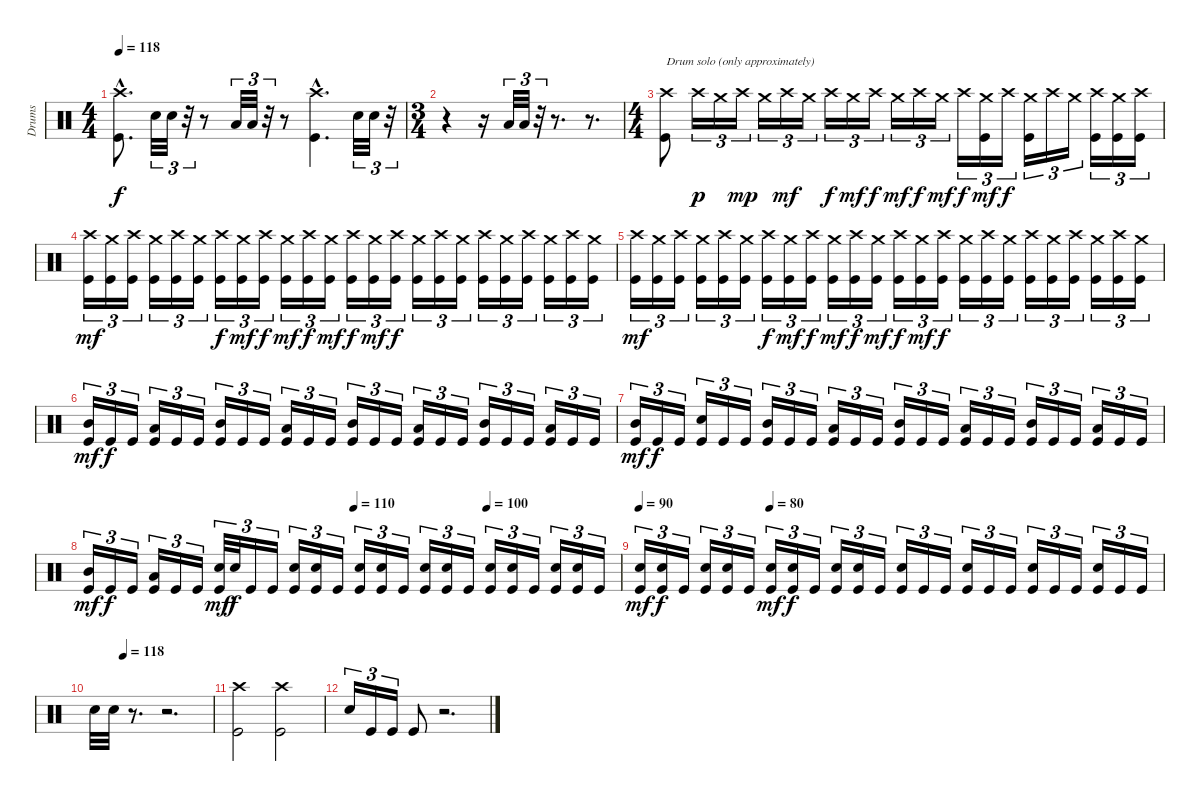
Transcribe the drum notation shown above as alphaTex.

\track ("Drums" "Drums") {instrument percussion}
\staff {score}
\articulation defaults
\ts (4 4)
\tempo 118
\clef neutral
\ks c
("Crash high (hit)"{hac} "Kick (hit)"{hac}).8{d dy f} "Snare (hit) 2".32{tu (3 2)} "Snare (hit) 2".32{tu (3 2)} r.32{tu (3 2)} r.8 "Low Tom (hit)".32{tu (3 2)} "Low Tom (hit)".32{tu (3 2)} r.32{tu (3 2)} r.8 ("Crash high (hit)"{hac} "Kick (hit)"{hac}).4{d} "Snare (hit) 2".32{tu (3 2)} "Snare (hit) 2".32{tu (3 2)} r.32{tu (3 2)} |
\ts (3 4)
r.4 r.16 "Low Tom (hit)".32{tu (3 2)} "Low Tom (hit)".32{tu (3 2)} r.32{tu (3 2)} r.8{d} r.8{d} |
\ts (4 4)
("Crash high (hit)" "Kick (hit)").8{txt "Drum solo (only approximately)"} "Crash high (hit)".16{tu (3 2) dy p} "Crash medium (hit)".16{tu (3 2)} "Crash high (hit)".16{tu (3 2) dy mp} "Crash medium (hit)".16{tu (3 2)} "Crash high (hit)".16{tu (3 2) dy mf} "Crash medium (hit)".16{tu (3 2)} "Crash high (hit)".16{tu (3 2) dy f} "Crash medium (hit)".16{tu (3 2) dy mf} "Crash high (hit)".16{tu (3 2) dy f} "Crash medium (hit)".16{tu (3 2) dy mf} "Crash high (hit)".16{tu (3 2) dy f} "Crash medium (hit)".16{tu (3 2) dy mf} "Crash high (hit)".16{tu (3 2) dy f} ("Crash medium (hit)" "Kick (hit)").16{tu (3 2) dy mf} "Crash high (hit)".16{tu (3 2) dy f} ("Crash medium (hit)" "Kick (hit)").16{tu (3 2)} "Crash high (hit)".16{tu (3 2)} "Crash medium (hit)".16{tu (3 2)} ("Crash high (hit)" "Kick (hit)").16{tu (3 2)} ("Crash medium (hit)" "Kick (hit)").16{tu (3 2)} ("Crash high (hit)" "Kick (hit)").16{tu (3 2)} |
("Crash high (hit)" "Kick (hit)").16{tu (3 2) dy mf} ("Crash medium (hit)" "Kick (hit)").16{tu (3 2)} ("Crash high (hit)" "Kick (hit)").16{tu (3 2)} ("Crash medium (hit)" "Kick (hit)").16{tu (3 2)} ("Crash high (hit)" "Kick (hit)").16{tu (3 2)} ("Crash medium (hit)" "Kick (hit)").16{tu (3 2)} ("Crash high (hit)" "Kick (hit)").16{tu (3 2) dy f} ("Crash medium (hit)" "Kick (hit)").16{tu (3 2) dy mf} ("Crash high (hit)" "Kick (hit)").16{tu (3 2) dy f} ("Crash medium (hit)" "Kick (hit)").16{tu (3 2) dy mf} ("Crash high (hit)" "Kick (hit)").16{tu (3 2) dy f} ("Crash medium (hit)" "Kick (hit)").16{tu (3 2) dy mf} ("Crash high (hit)" "Kick (hit)").16{tu (3 2) dy f} ("Crash medium (hit)" "Kick (hit)").16{tu (3 2) dy mf} ("Crash high (hit)" "Kick (hit)").16{tu (3 2) dy f} ("Crash medium (hit)" "Kick (hit)").16{tu (3 2)} ("Crash high (hit)" "Kick (hit)").16{tu (3 2)} ("Crash medium (hit)" "Kick (hit)").16{tu (3 2)} ("Crash high (hit)" "Kick (hit)").16{tu (3 2)} ("Crash medium (hit)" "Kick (hit)").16{tu (3 2)} ("Crash high (hit)" "Kick (hit)").16{tu (3 2)} ("Crash medium (hit)" "Kick (hit)").16{tu (3 2)} ("Crash high (hit)" "Kick (hit)").16{tu (3 2)} ("Crash medium (hit)" "Kick (hit)").16{tu (3 2)} |
("Crash high (hit)" "Kick (hit)").16{tu (3 2) dy mf} ("Crash medium (hit)" "Kick (hit)").16{tu (3 2)} ("Crash high (hit)" "Kick (hit)").16{tu (3 2)} ("Crash medium (hit)" "Kick (hit)").16{tu (3 2)} ("Crash high (hit)" "Kick (hit)").16{tu (3 2)} ("Crash medium (hit)" "Kick (hit)").16{tu (3 2)} ("Crash high (hit)" "Kick (hit)").16{tu (3 2) dy f} ("Crash medium (hit)" "Kick (hit)").16{tu (3 2) dy mf} ("Crash high (hit)" "Kick (hit)").16{tu (3 2) dy f} ("Crash medium (hit)" "Kick (hit)").16{tu (3 2) dy mf} ("Crash high (hit)" "Kick (hit)").16{tu (3 2) dy f} ("Crash medium (hit)" "Kick (hit)").16{tu (3 2) dy mf} ("Crash high (hit)" "Kick (hit)").16{tu (3 2) dy f} ("Crash medium (hit)" "Kick (hit)").16{tu (3 2) dy mf} ("Crash high (hit)" "Kick (hit)").16{tu (3 2) dy f} ("Crash medium (hit)" "Kick (hit)").16{tu (3 2)} ("Crash high (hit)" "Kick (hit)").16{tu (3 2)} ("Crash medium (hit)" "Kick (hit)").16{tu (3 2)} ("Crash high (hit)" "Kick (hit)").16{tu (3 2)} ("Crash medium (hit)" "Kick (hit)").16{tu (3 2)} ("Crash high (hit)" "Kick (hit)").16{tu (3 2)} ("Crash medium (hit)" "Kick (hit)").16{tu (3 2)} ("Crash high (hit)" "Kick (hit)").16{tu (3 2)} ("Crash medium (hit)" "Kick (hit)").16{tu (3 2)} |
("Mid Tom (hit)" "Kick (hit)").16{tu (3 2) dy mf} "Kick (hit)".16{tu (3 2) dy f} "Kick (hit)".16{tu (3 2)} ("Low Tom (hit)" "Kick (hit)").16{tu (3 2)} "Kick (hit)".16{tu (3 2)} "Kick (hit)".16{tu (3 2)} ("Mid Tom (hit)" "Kick (hit)").16{tu (3 2)} "Kick (hit)".16{tu (3 2)} "Kick (hit)".16{tu (3 2)} ("Low Tom (hit)" "Kick (hit)").16{tu (3 2)} "Kick (hit)".16{tu (3 2)} "Kick (hit)".16{tu (3 2)} ("Mid Tom (hit)" "Kick (hit)").16{tu (3 2)} "Kick (hit)".16{tu (3 2)} "Kick (hit)".16{tu (3 2)} ("Low Tom (hit)" "Kick (hit)").16{tu (3 2)} "Kick (hit)".16{tu (3 2)} "Kick (hit)".16{tu (3 2)} ("Mid Tom (hit)" "Kick (hit)").16{tu (3 2)} "Kick (hit)".16{tu (3 2)} "Kick (hit)".16{tu (3 2)} ("Low Tom (hit)" "Kick (hit)").16{tu (3 2)} "Kick (hit)".16{tu (3 2)} "Kick (hit)".16{tu (3 2)} |
("Mid Tom (hit)" "Kick (hit)").16{tu (3 2) dy mf} "Kick (hit)".16{tu (3 2) dy f} "Kick (hit)".16{tu (3 2)} ("Snare (hit) 2" "Kick (hit)").16{tu (3 2)} "Kick (hit)".16{tu (3 2)} "Kick (hit)".16{tu (3 2)} ("Mid Tom (hit)" "Kick (hit)").16{tu (3 2)} "Kick (hit)".16{tu (3 2)} "Kick (hit)".16{tu (3 2)} ("Low Tom (hit)" "Kick (hit)").16{tu (3 2)} "Kick (hit)".16{tu (3 2)} "Kick (hit)".16{tu (3 2)} ("Mid Tom (hit)" "Kick (hit)").16{tu (3 2)} "Kick (hit)".16{tu (3 2)} "Kick (hit)".16{tu (3 2)} ("Low Tom (hit)" "Kick (hit)").16{tu (3 2)} "Kick (hit)".16{tu (3 2)} "Kick (hit)".16{tu (3 2)} ("Mid Tom (hit)" "Kick (hit)").16{tu (3 2)} "Kick (hit)".16{tu (3 2)} "Kick (hit)".16{tu (3 2)} ("Low Tom (hit)" "Kick (hit)").16{tu (3 2)} "Kick (hit)".16{tu (3 2)} "Kick (hit)".16{tu (3 2)} |
\tempo (110 0.5)
\tempo (100 0.75)
("Mid Tom (hit)" "Kick (hit)").16{tu (3 2) dy mf} "Kick (hit)".16{tu (3 2) dy f} "Kick (hit)".16{tu (3 2)} ("Low Tom (hit)" "Kick (hit)").16{tu (3 2)} "Kick (hit)".16{tu (3 2)} "Kick (hit)".16{tu (3 2)} ("Snare (hit) 2" "Kick (hit)").32{tu (3 2) dy mf} "Snare (hit) 2".32{tu (3 2) dy f} "Kick (hit)".16{tu (3 2)} "Kick (hit)".16{tu (3 2)} ("Snare (hit) 2" "Kick (hit)").16{tu (3 2)} ("Snare (hit) 2" "Kick (hit)").16{tu (3 2)} "Kick (hit)".16{tu (3 2)} ("Snare (hit) 2" "Kick (hit)").16{tu (3 2)} ("Snare (hit) 2" "Kick (hit)").16{tu (3 2)} "Kick (hit)".16{tu (3 2)} ("Snare (hit) 2" "Kick (hit)").16{tu (3 2)} ("Snare (hit) 2" "Kick (hit)").16{tu (3 2)} "Kick (hit)".16{tu (3 2)} ("Snare (hit) 2" "Kick (hit)").16{tu (3 2)} ("Snare (hit) 2" "Kick (hit)").16{tu (3 2)} "Kick (hit)".16{tu (3 2)} ("Snare (hit) 2" "Kick (hit)").16{tu (3 2)} ("Snare (hit) 2" "Kick (hit)").16{tu (3 2)} "Kick (hit)".16{tu (3 2)} |
\tempo 90
\tempo (80 0.25)
("Snare (hit) 2" "Kick (hit)").16{tu (3 2) dy mf} ("Snare (hit) 2" "Kick (hit)").16{tu (3 2) dy f} "Kick (hit)".16{tu (3 2)} ("Snare (hit) 2" "Kick (hit)").16{tu (3 2)} ("Snare (hit) 2" "Kick (hit)").16{tu (3 2)} "Kick (hit)".16{tu (3 2)} ("Snare (hit) 2" "Kick (hit)").16{tu (3 2) dy mf} ("Snare (hit) 2" "Kick (hit)").16{tu (3 2) dy f} "Kick (hit)".16{tu (3 2)} ("Snare (hit) 2" "Kick (hit)").16{tu (3 2)} ("Snare (hit) 2" "Kick (hit)").16{tu (3 2)} "Kick (hit)".16{tu (3 2)} ("Snare (hit) 2" "Kick (hit)").16{tu (3 2)} "Kick (hit)".16{tu (3 2)} "Kick (hit)".16{tu (3 2)} ("Snare (hit) 2" "Kick (hit)").16{tu (3 2)} "Kick (hit)".16{tu (3 2)} "Kick (hit)".16{tu (3 2)} ("Snare (hit) 2" "Kick (hit)").16{tu (3 2)} "Kick (hit)".16{tu (3 2)} "Kick (hit)".16{tu (3 2)} ("Snare (hit) 2" "Kick (hit)").16{tu (3 2)} "Kick (hit)".16{tu (3 2)} "Kick (hit)".16{tu (3 2)} |
\tempo (118 0.25)
"Snare (hit) 2".32 "Snare (hit) 2".32 r.8{d} r.2{d} |
("Crash high (hit)" "Kick (hit)").2 ("Crash high (hit)" "Kick (hit)").2 |
"Snare (hit) 2".16{tu (3 2)} "Kick (hit)".16{tu (3 2)} "Kick (hit)".16{tu (3 2)} "Kick (hit)".8 r.2{d}
